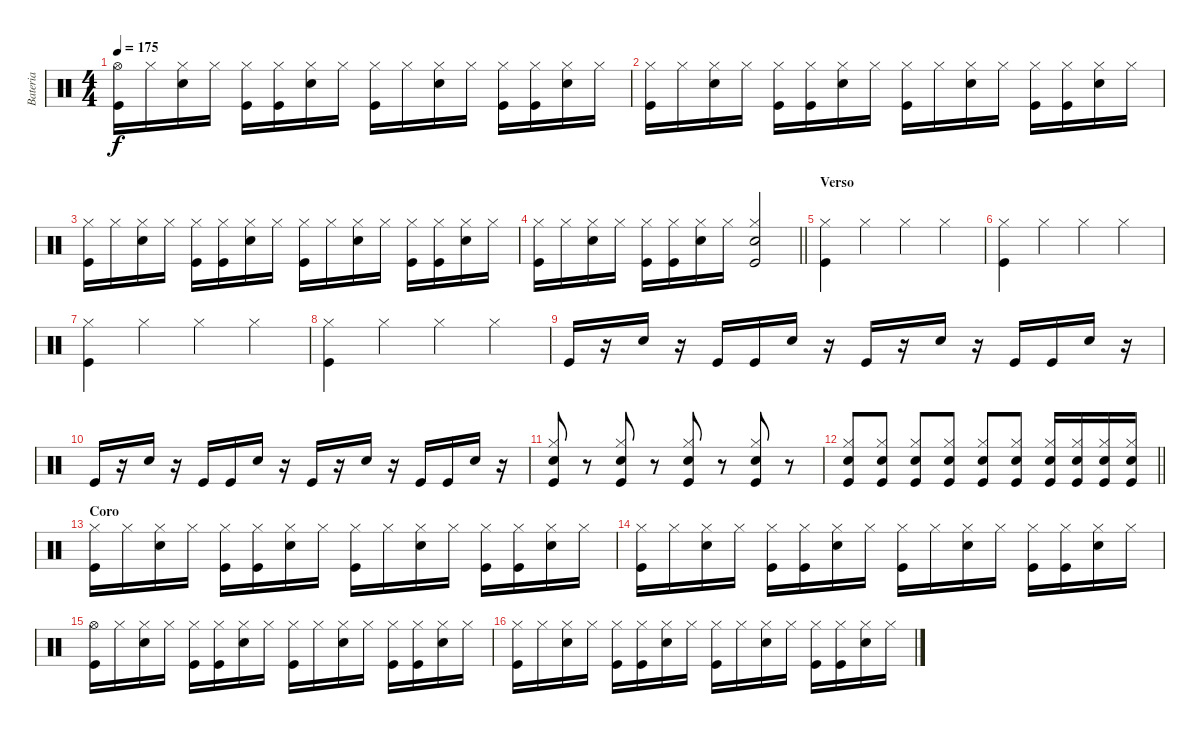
\track ("Bateria" "Bateria") {instrument percussion}
\staff {score}
\articulation defaults
\ts (4 4)
\tempo 175
\clef neutral
\ks c
("Hi-Hat (open)" "Kick (hit)").16{dy f} "Hi-Hat (closed)".16 ("Hi-Hat (closed)" "Electric Snare (hit)").16 "Hi-Hat (closed)".16 ("Hi-Hat (closed)" "Kick (hit)").16 ("Hi-Hat (closed)" "Kick (hit)").16 ("Hi-Hat (closed)" "Electric Snare (hit)").16 "Hi-Hat (closed)".16 ("Hi-Hat (closed)" "Kick (hit)").16 "Hi-Hat (closed)".16 ("Hi-Hat (closed)" "Electric Snare (hit)").16 "Hi-Hat (closed)".16 ("Hi-Hat (closed)" "Kick (hit)").16 ("Hi-Hat (closed)" "Kick (hit)").16 ("Hi-Hat (closed)" "Electric Snare (hit)").16 "Hi-Hat (closed)".16 |
("Hi-Hat (closed)" "Kick (hit)").16 "Hi-Hat (closed)".16 ("Hi-Hat (closed)" "Electric Snare (hit)").16 "Hi-Hat (closed)".16 ("Hi-Hat (closed)" "Kick (hit)").16 ("Hi-Hat (closed)" "Kick (hit)").16 ("Hi-Hat (closed)" "Electric Snare (hit)").16 "Hi-Hat (closed)".16 ("Hi-Hat (closed)" "Kick (hit)").16 "Hi-Hat (closed)".16 ("Hi-Hat (closed)" "Electric Snare (hit)").16 "Hi-Hat (closed)".16 ("Hi-Hat (closed)" "Kick (hit)").16 ("Hi-Hat (closed)" "Kick (hit)").16 ("Hi-Hat (closed)" "Electric Snare (hit)").16 "Hi-Hat (closed)".16 |
("Hi-Hat (closed)" "Kick (hit)").16 "Hi-Hat (closed)".16 ("Hi-Hat (closed)" "Electric Snare (hit)").16 "Hi-Hat (closed)".16 ("Hi-Hat (closed)" "Kick (hit)").16 ("Hi-Hat (closed)" "Kick (hit)").16 ("Hi-Hat (closed)" "Electric Snare (hit)").16 "Hi-Hat (closed)".16 ("Hi-Hat (closed)" "Kick (hit)").16 "Hi-Hat (closed)".16 ("Hi-Hat (closed)" "Electric Snare (hit)").16 "Hi-Hat (closed)".16 ("Hi-Hat (closed)" "Kick (hit)").16 ("Hi-Hat (closed)" "Kick (hit)").16 ("Hi-Hat (closed)" "Electric Snare (hit)").16 "Hi-Hat (closed)".16 |
\barLineRight lightlight
("Hi-Hat (closed)" "Kick (hit)").16 "Hi-Hat (closed)".16 ("Hi-Hat (closed)" "Electric Snare (hit)").16 "Hi-Hat (closed)".16 ("Hi-Hat (closed)" "Kick (hit)").16 ("Hi-Hat (closed)" "Kick (hit)").16 ("Hi-Hat (closed)" "Electric Snare (hit)").16 "Hi-Hat (closed)".16 ("Hi-Hat (closed)" "Electric Snare (hit)" "Kick (hit)").2 |
\section ("" "Verso")
("Hi-Hat (closed)" "Kick (hit)").4 "Hi-Hat (closed)".4 "Hi-Hat (closed)".4 "Hi-Hat (closed)".4 |
("Hi-Hat (closed)" "Kick (hit)").4 "Hi-Hat (closed)".4 "Hi-Hat (closed)".4 "Hi-Hat (closed)".4 |
("Hi-Hat (closed)" "Kick (hit)").4 "Hi-Hat (closed)".4 "Hi-Hat (closed)".4 "Hi-Hat (closed)".4 |
("Hi-Hat (closed)" "Kick (hit)").4 "Hi-Hat (closed)".4 "Hi-Hat (closed)".4 "Hi-Hat (closed)".4 |
"Kick (hit)".16 r.16 "Electric Snare (hit)".16 r.16 "Kick (hit)".16 "Kick (hit)".16 "Electric Snare (hit)".16 r.16 "Kick (hit)".16 r.16 "Electric Snare (hit)".16 r.16 "Kick (hit)".16 "Kick (hit)".16 "Electric Snare (hit)".16 r.16 |
"Kick (hit)".16 r.16 "Electric Snare (hit)".16 r.16 "Kick (hit)".16 "Kick (hit)".16 "Electric Snare (hit)".16 r.16 "Kick (hit)".16 r.16 "Electric Snare (hit)".16 r.16 "Kick (hit)".16 "Kick (hit)".16 "Electric Snare (hit)".16 r.16 |
("Hi-Hat (closed)" "Electric Snare (hit)" "Kick (hit)").8 r.8 ("Hi-Hat (closed)" "Electric Snare (hit)" "Kick (hit)").8 r.8 ("Hi-Hat (closed)" "Electric Snare (hit)" "Kick (hit)").8 r.8 ("Hi-Hat (closed)" "Electric Snare (hit)" "Kick (hit)").8 r.8 |
\barLineRight lightlight
("Hi-Hat (closed)" "Electric Snare (hit)" "Kick (hit)").8 ("Hi-Hat (closed)" "Electric Snare (hit)" "Kick (hit)").8 ("Hi-Hat (closed)" "Electric Snare (hit)" "Kick (hit)").8 ("Hi-Hat (closed)" "Electric Snare (hit)" "Kick (hit)").8 ("Hi-Hat (closed)" "Electric Snare (hit)" "Kick (hit)").8 ("Hi-Hat (closed)" "Electric Snare (hit)" "Kick (hit)").8 ("Hi-Hat (closed)" "Electric Snare (hit)" "Kick (hit)").16 ("Hi-Hat (closed)" "Electric Snare (hit)" "Kick (hit)").16 ("Hi-Hat (closed)" "Electric Snare (hit)" "Kick (hit)").16 ("Hi-Hat (closed)" "Electric Snare (hit)" "Kick (hit)").16 |
\section ("" "Coro")
("Hi-Hat (closed)" "Kick (hit)").16 "Hi-Hat (closed)".16 ("Hi-Hat (closed)" "Electric Snare (hit)").16 "Hi-Hat (closed)".16 ("Hi-Hat (closed)" "Kick (hit)").16 ("Hi-Hat (closed)" "Kick (hit)").16 ("Hi-Hat (closed)" "Electric Snare (hit)").16 "Hi-Hat (closed)".16 ("Hi-Hat (closed)" "Kick (hit)").16 "Hi-Hat (closed)".16 ("Hi-Hat (closed)" "Electric Snare (hit)").16 "Hi-Hat (closed)".16 ("Hi-Hat (closed)" "Kick (hit)").16 ("Hi-Hat (closed)" "Kick (hit)").16 ("Hi-Hat (closed)" "Electric Snare (hit)").16 "Hi-Hat (closed)".16 |
("Hi-Hat (closed)" "Kick (hit)").16 "Hi-Hat (closed)".16 ("Hi-Hat (closed)" "Electric Snare (hit)").16 "Hi-Hat (closed)".16 ("Hi-Hat (closed)" "Kick (hit)").16 ("Hi-Hat (closed)" "Kick (hit)").16 ("Hi-Hat (closed)" "Electric Snare (hit)").16 "Hi-Hat (closed)".16 ("Hi-Hat (closed)" "Kick (hit)").16 "Hi-Hat (closed)".16 ("Hi-Hat (closed)" "Electric Snare (hit)").16 "Hi-Hat (closed)".16 ("Hi-Hat (closed)" "Kick (hit)").16 ("Hi-Hat (closed)" "Kick (hit)").16 ("Hi-Hat (closed)" "Electric Snare (hit)").16 "Hi-Hat (closed)".16 |
("Hi-Hat (open)" "Kick (hit)").16 "Hi-Hat (closed)".16 ("Hi-Hat (closed)" "Electric Snare (hit)").16 "Hi-Hat (closed)".16 ("Hi-Hat (closed)" "Kick (hit)").16 ("Hi-Hat (closed)" "Kick (hit)").16 ("Hi-Hat (closed)" "Electric Snare (hit)").16 "Hi-Hat (closed)".16 ("Hi-Hat (closed)" "Kick (hit)").16 "Hi-Hat (closed)".16 ("Hi-Hat (closed)" "Electric Snare (hit)").16 "Hi-Hat (closed)".16 ("Hi-Hat (closed)" "Kick (hit)").16 ("Hi-Hat (closed)" "Kick (hit)").16 ("Hi-Hat (closed)" "Electric Snare (hit)").16 "Hi-Hat (closed)".16 |
("Hi-Hat (closed)" "Kick (hit)").16 "Hi-Hat (closed)".16 ("Hi-Hat (closed)" "Electric Snare (hit)").16 "Hi-Hat (closed)".16 ("Hi-Hat (closed)" "Kick (hit)").16 ("Hi-Hat (closed)" "Kick (hit)").16 ("Hi-Hat (closed)" "Electric Snare (hit)").16 "Hi-Hat (closed)".16 ("Hi-Hat (closed)" "Kick (hit)").16 "Hi-Hat (closed)".16 ("Hi-Hat (closed)" "Electric Snare (hit)").16 "Hi-Hat (closed)".16 ("Hi-Hat (closed)" "Kick (hit)").16 ("Hi-Hat (closed)" "Kick (hit)").16 ("Hi-Hat (closed)" "Electric Snare (hit)").16 "Hi-Hat (closed)".16
